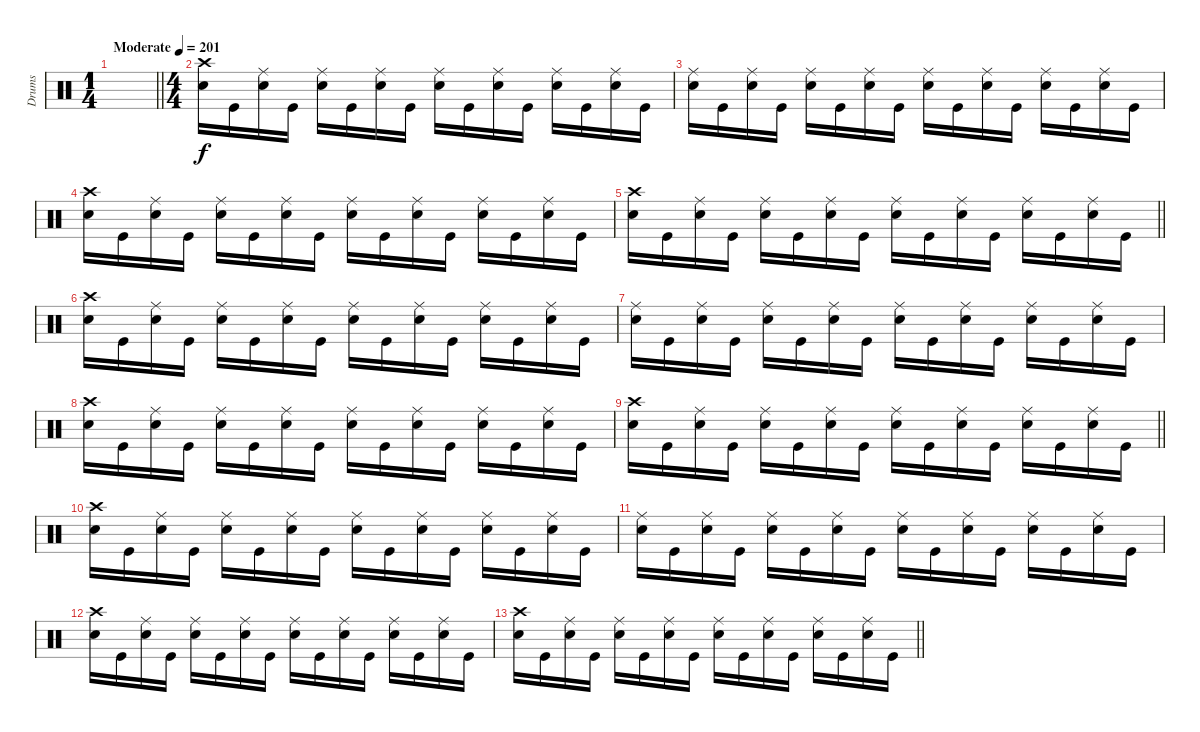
\track ("Drums" "Drums") {instrument percussion}
\staff
\articulation defaults
\ts (1 4)
\tempo (201 "Moderate")
\clef neutral
\barLineRight lightlight
\ks c
|
\ts (4 4)
("Crash high (hit)" "Electric Snare (hit)").16 "Kick (hit)".16 ("Ride (middle)" "Electric Snare (hit)").16 "Kick (hit)".16 ("Ride (middle)" "Electric Snare (hit)").16 "Kick (hit)".16 ("Ride (middle)" "Electric Snare (hit)").16 "Kick (hit)".16 ("Ride (middle)" "Electric Snare (hit)").16 "Kick (hit)".16 ("Ride (middle)" "Electric Snare (hit)").16 "Kick (hit)".16 ("Ride (middle)" "Electric Snare (hit)").16 "Kick (hit)".16 ("Ride (middle)" "Electric Snare (hit)").16 "Kick (hit)".16 |
("Ride (middle)" "Electric Snare (hit)").16 "Kick (hit)".16 ("Ride (middle)" "Electric Snare (hit)").16 "Kick (hit)".16 ("Ride (middle)" "Electric Snare (hit)").16 "Kick (hit)".16 ("Ride (middle)" "Electric Snare (hit)").16 "Kick (hit)".16 ("Ride (middle)" "Electric Snare (hit)").16 "Kick (hit)".16 ("Ride (middle)" "Electric Snare (hit)").16 "Kick (hit)".16 ("Ride (middle)" "Electric Snare (hit)").16 "Kick (hit)".16 ("Ride (middle)" "Electric Snare (hit)").16 "Kick (hit)".16 |
("Crash high (hit)" "Electric Snare (hit)").16 "Kick (hit)".16 ("Ride (middle)" "Electric Snare (hit)").16 "Kick (hit)".16 ("Ride (middle)" "Electric Snare (hit)").16 "Kick (hit)".16 ("Ride (middle)" "Electric Snare (hit)").16 "Kick (hit)".16 ("Ride (middle)" "Electric Snare (hit)").16 "Kick (hit)".16 ("Ride (middle)" "Electric Snare (hit)").16 "Kick (hit)".16 ("Ride (middle)" "Electric Snare (hit)").16 "Kick (hit)".16 ("Ride (middle)" "Electric Snare (hit)").16 "Kick (hit)".16 |
\barLineRight lightlight
("Crash high (hit)" "Electric Snare (hit)").16 "Kick (hit)".16 ("Ride (middle)" "Electric Snare (hit)").16 "Kick (hit)".16 ("Ride (middle)" "Electric Snare (hit)").16 "Kick (hit)".16 ("Ride (middle)" "Electric Snare (hit)").16 "Kick (hit)".16 ("Ride (middle)" "Electric Snare (hit)").16 "Kick (hit)".16 ("Ride (middle)" "Electric Snare (hit)").16 "Kick (hit)".16 ("Ride (middle)" "Electric Snare (hit)").16 "Kick (hit)".16 ("Ride (middle)" "Electric Snare (hit)").16 "Kick (hit)".16 |
("Crash high (hit)" "Electric Snare (hit)").16 "Kick (hit)".16 ("Ride (middle)" "Electric Snare (hit)").16 "Kick (hit)".16 ("Ride (middle)" "Electric Snare (hit)").16 "Kick (hit)".16 ("Ride (middle)" "Electric Snare (hit)").16 "Kick (hit)".16 ("Ride (middle)" "Electric Snare (hit)").16 "Kick (hit)".16 ("Ride (middle)" "Electric Snare (hit)").16 "Kick (hit)".16 ("Ride (middle)" "Electric Snare (hit)").16 "Kick (hit)".16 ("Ride (middle)" "Electric Snare (hit)").16 "Kick (hit)".16 |
("Ride (middle)" "Electric Snare (hit)").16 "Kick (hit)".16 ("Ride (middle)" "Electric Snare (hit)").16 "Kick (hit)".16 ("Ride (middle)" "Electric Snare (hit)").16 "Kick (hit)".16 ("Ride (middle)" "Electric Snare (hit)").16 "Kick (hit)".16 ("Ride (middle)" "Electric Snare (hit)").16 "Kick (hit)".16 ("Ride (middle)" "Electric Snare (hit)").16 "Kick (hit)".16 ("Ride (middle)" "Electric Snare (hit)").16 "Kick (hit)".16 ("Ride (middle)" "Electric Snare (hit)").16 "Kick (hit)".16 |
("Crash high (hit)" "Electric Snare (hit)").16 "Kick (hit)".16 ("Ride (middle)" "Electric Snare (hit)").16 "Kick (hit)".16 ("Ride (middle)" "Electric Snare (hit)").16 "Kick (hit)".16 ("Ride (middle)" "Electric Snare (hit)").16 "Kick (hit)".16 ("Ride (middle)" "Electric Snare (hit)").16 "Kick (hit)".16 ("Ride (middle)" "Electric Snare (hit)").16 "Kick (hit)".16 ("Ride (middle)" "Electric Snare (hit)").16 "Kick (hit)".16 ("Ride (middle)" "Electric Snare (hit)").16 "Kick (hit)".16 |
\barLineRight lightlight
("Crash high (hit)" "Electric Snare (hit)").16 "Kick (hit)".16 ("Ride (middle)" "Electric Snare (hit)").16 "Kick (hit)".16 ("Ride (middle)" "Electric Snare (hit)").16 "Kick (hit)".16 ("Ride (middle)" "Electric Snare (hit)").16 "Kick (hit)".16 ("Ride (middle)" "Electric Snare (hit)").16 "Kick (hit)".16 ("Ride (middle)" "Electric Snare (hit)").16 "Kick (hit)".16 ("Ride (middle)" "Electric Snare (hit)").16 "Kick (hit)".16 ("Ride (middle)" "Electric Snare (hit)").16 "Kick (hit)".16 |
("Crash high (hit)" "Electric Snare (hit)").16 "Kick (hit)".16 ("Ride (middle)" "Electric Snare (hit)").16 "Kick (hit)".16 ("Ride (middle)" "Electric Snare (hit)").16 "Kick (hit)".16 ("Ride (middle)" "Electric Snare (hit)").16 "Kick (hit)".16 ("Ride (middle)" "Electric Snare (hit)").16 "Kick (hit)".16 ("Ride (middle)" "Electric Snare (hit)").16 "Kick (hit)".16 ("Ride (middle)" "Electric Snare (hit)").16 "Kick (hit)".16 ("Ride (middle)" "Electric Snare (hit)").16 "Kick (hit)".16 |
("Ride (middle)" "Electric Snare (hit)").16 "Kick (hit)".16 ("Ride (middle)" "Electric Snare (hit)").16 "Kick (hit)".16 ("Ride (middle)" "Electric Snare (hit)").16 "Kick (hit)".16 ("Ride (middle)" "Electric Snare (hit)").16 "Kick (hit)".16 ("Ride (middle)" "Electric Snare (hit)").16 "Kick (hit)".16 ("Ride (middle)" "Electric Snare (hit)").16 "Kick (hit)".16 ("Ride (middle)" "Electric Snare (hit)").16 "Kick (hit)".16 ("Ride (middle)" "Electric Snare (hit)").16 "Kick (hit)".16 |
("Crash high (hit)" "Electric Snare (hit)").16 "Kick (hit)".16 ("Ride (middle)" "Electric Snare (hit)").16 "Kick (hit)".16 ("Ride (middle)" "Electric Snare (hit)").16 "Kick (hit)".16 ("Ride (middle)" "Electric Snare (hit)").16 "Kick (hit)".16 ("Ride (middle)" "Electric Snare (hit)").16 "Kick (hit)".16 ("Ride (middle)" "Electric Snare (hit)").16 "Kick (hit)".16 ("Ride (middle)" "Electric Snare (hit)").16 "Kick (hit)".16 ("Ride (middle)" "Electric Snare (hit)").16 "Kick (hit)".16 |
\barLineRight lightlight
("Crash high (hit)" "Electric Snare (hit)").16 "Kick (hit)".16 ("Ride (middle)" "Electric Snare (hit)").16 "Kick (hit)".16 ("Ride (middle)" "Electric Snare (hit)").16 "Kick (hit)".16 ("Ride (middle)" "Electric Snare (hit)").16 "Kick (hit)".16 ("Ride (middle)" "Electric Snare (hit)").16 "Kick (hit)".16 ("Ride (middle)" "Electric Snare (hit)").16 "Kick (hit)".16 ("Ride (middle)" "Electric Snare (hit)").16 "Kick (hit)".16 ("Ride (middle)" "Electric Snare (hit)").16 "Kick (hit)".16
